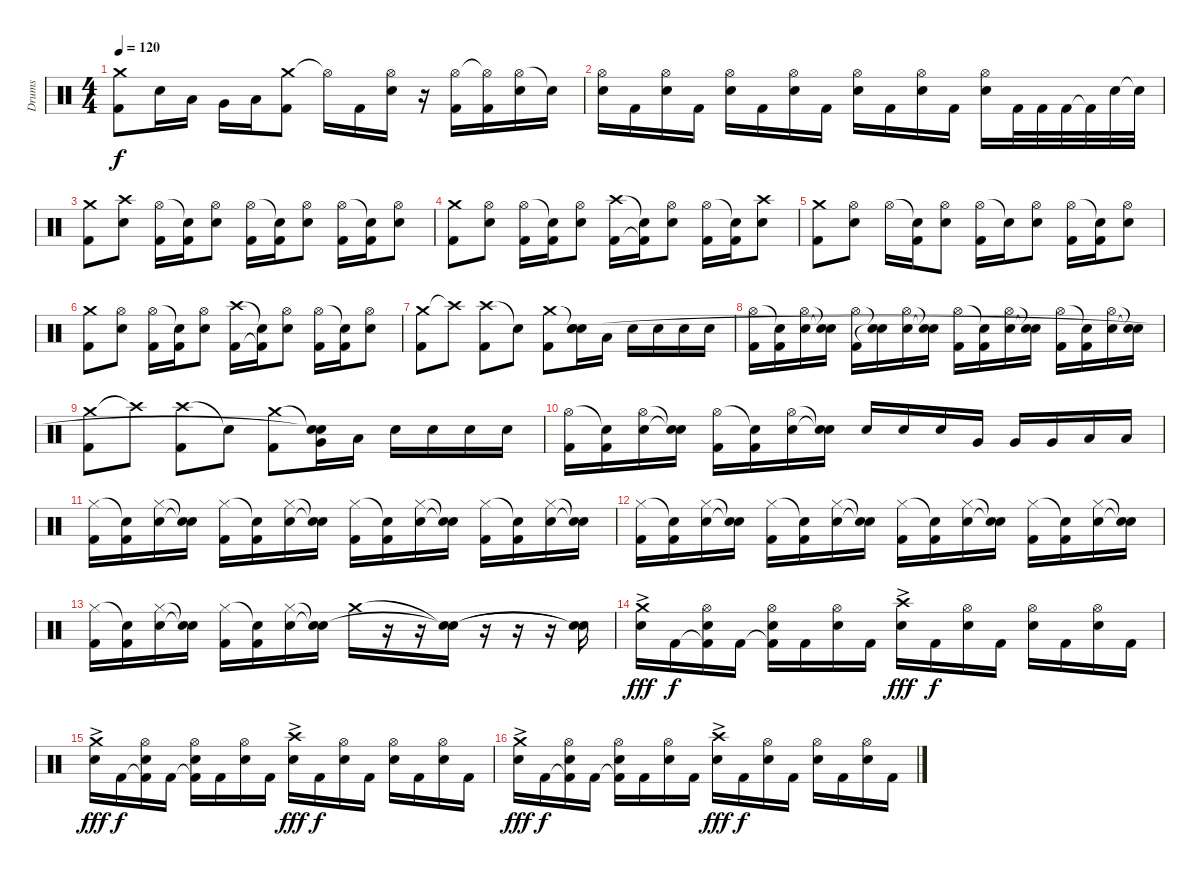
\track ("Drums" "Drums") {instrument percussion}
\staff {score}
\articulation defaults
\ts (4 4)
\tempo 120
\clef neutral
\ks c
("Crash medium (hit)" "Kick (hit) 2").8{dy f} "Electric Snare (hit)".16 "Low Tom (hit)".16 "Very Low Tom (hit)".16 "Low Floor Tom (hit)".16 ("Crash medium (hit)" "Kick (hit) 2").8 "Hi-Hat (open)"{t}.16 "Kick (hit) 2".16 ("Hi-Hat (open)" "Electric Snare (hit)").16 r.16 ("Hi-Hat (open)" "Kick (hit) 2").16 ("Hi-Hat (open)"{t} "Kick (hit) 2").16 ("Hi-Hat (open)" "Electric Snare (hit)").16 "Snare (hit)"{t}.16 |
("Electric Snare (hit)" "Hi-Hat (open)").16 "Kick (hit) 2".16 ("Electric Snare (hit)" "Hi-Hat (open)").16 "Kick (hit) 2".16 ("Electric Snare (hit)" "Hi-Hat (open)").16 "Kick (hit) 2".16 ("Electric Snare (hit)" "Hi-Hat (open)").16 "Kick (hit) 2".16 ("Electric Snare (hit)" "Hi-Hat (open)").16 "Kick (hit) 2".16 ("Electric Snare (hit)" "Hi-Hat (open)").16 "Kick (hit) 2".16 ("Electric Snare (hit)" "Hi-Hat (open)").16 "Kick (hit) 2".32 "Kick (hit) 2".32 "Kick (hit) 2".32 "Kick (hit) 2"{t}.32 "Electric Snare (hit)".32 "Snare (hit)"{t}.32 |
("Crash medium (hit)" "Kick (hit) 2").8 ("Crash high (hit)" "Electric Snare (hit)").8 ("Hi-Hat (open)" "Kick (hit) 2").16 ("Snare (hit)"{t} "Kick (hit) 2").16 ("Hi-Hat (open)" "Electric Snare (hit)").8 ("Hi-Hat (open)" "Kick (hit) 2").16 ("Snare (hit)"{t} "Kick (hit) 2").16 ("Hi-Hat (open)" "Electric Snare (hit)").8 ("Hi-Hat (open)" "Kick (hit) 2").16 ("Snare (hit)"{t} "Kick (hit) 2").16 ("Hi-Hat (open)" "Electric Snare (hit)").8 |
("Crash medium (hit)" "Kick (hit) 2").8 ("Hi-Hat (open)" "Electric Snare (hit)").8 ("Hi-Hat (open)" "Kick (hit) 2").16 ("Snare (hit)"{t} "Kick (hit) 2").16 ("Hi-Hat (open)" "Electric Snare (hit)").8 ("Crash high (hit)" "Kick (hit) 2").16 ("Snare (hit)"{t} "Kick (hit) 2"{t}).16 ("Hi-Hat (open)" "Electric Snare (hit)").8 ("Hi-Hat (open)" "Kick (hit) 2").16 ("Snare (hit)"{t} "Kick (hit) 2").16 ("Crash high (hit)" "Electric Snare (hit)").8 |
("Crash medium (hit)" "Kick (hit) 2").8 ("Hi-Hat (open)" "Electric Snare (hit)").8 "Hi-Hat (open)".16 ("Snare (hit)"{t} "Kick (hit) 2").16 ("Hi-Hat (open)" "Electric Snare (hit)").8 ("Hi-Hat (open)" "Kick (hit) 2").16 "Snare (hit)"{t}.16 ("Hi-Hat (open)" "Electric Snare (hit)").8 ("Hi-Hat (open)" "Kick (hit) 2").16 ("Snare (hit)"{t} "Kick (hit) 2").16 ("Hi-Hat (open)" "Electric Snare (hit)").8 |
("Crash medium (hit)" "Kick (hit) 2").8 ("Hi-Hat (open)" "Electric Snare (hit)").8 ("Hi-Hat (open)" "Kick (hit) 2").16 ("Snare (hit)"{t} "Kick (hit) 2").16 ("Hi-Hat (open)" "Electric Snare (hit)").8 ("Crash high (hit)" "Kick (hit) 2").16 ("Snare (hit)"{t} "Kick (hit) 2"{t}).16 ("Hi-Hat (open)" "Electric Snare (hit)").8 ("Hi-Hat (open)" "Kick (hit) 2").16 ("Snare (hit)"{t} "Kick (hit) 2").16 ("Hi-Hat (open)" "Electric Snare (hit)").8 |
("Crash medium (hit)" "Kick (hit) 2").8 "Crash high (hit)"{t}.8 ("Crash high (hit)" "Kick (hit) 2").8 "Snare (hit)"{t}.8 ("Crash medium (hit)" "Kick (hit) 2").8 ("Snare (hit)"{t} "Electric Snare (hit)" "Snare (hit)").16 "Low Tom (hit)".16 "Electric Snare (hit)".16 "Electric Snare (hit)".16 "Electric Snare (hit)".16 "Electric Snare (hit)".16 |
("Hi-Hat (open)" "Kick (hit) 2").16 ("Snare (hit)"{t} "Kick (hit) 2").16 ("Hi-Hat (open)" "Electric Snare (hit)").16 ("Snare (hit)"{t} "Snare (hit)"{t}).16 ("Hi-Hat (open)" "Kick (hit) 2").16 ("Snare (hit)"{t} "Snare (hit)"{t}).16 ("Hi-Hat (open)" "Electric Snare (hit)").16 ("Snare (hit)"{t} "Snare (hit)"{t}).16 ("Hi-Hat (open)" "Kick (hit) 2").16 ("Snare (hit)"{t} "Kick (hit) 2").16 ("Hi-Hat (open)" "Electric Snare (hit)").16 ("Snare (hit)"{t} "Snare (hit)"{t}).16 ("Hi-Hat (open)" "Kick (hit) 2").16 ("Snare (hit)"{t} "Kick (hit) 2").16 ("Hi-Hat (open)" "Electric Snare (hit)").16 ("Snare (hit)"{t} "Snare (hit)"{t}).16 |
("Crash medium (hit)" "Kick (hit) 2").8 "Crash high (hit)"{t}.8 ("Crash high (hit)" "Kick (hit) 2").8 "Snare (hit)"{t}.8 ("Crash medium (hit)" "Kick (hit) 2").8 ("Snare (hit)"{t} "Very Low Tom (hit)" "Snare (hit)"{t}).16 "Low Tom (hit)".16 "Electric Snare (hit)".16 "Electric Snare (hit)".16 "Electric Snare (hit)".16 "Electric Snare (hit)".16 |
("Hi-Hat (open)" "Kick (hit) 2").16 ("Snare (hit)"{t} "Kick (hit) 2").16 ("Hi-Hat (open)" "Electric Snare (hit)").16 ("Snare (hit)"{t} "Snare (hit)"{t}).16 ("Hi-Hat (open)" "Kick (hit) 2").16 ("Snare (hit)"{t} "Kick (hit) 2").16 ("Hi-Hat (open)" "Electric Snare (hit)").16 ("Snare (hit)"{t} "Snare (hit)"{t}).16 "Electric Snare (hit)".16 "Electric Snare (hit)".16 "Electric Snare (hit)".16 "Very Low Tom (hit)".16 "Very Low Tom (hit)".16 "Very Low Tom (hit)".16 "Low Floor Tom (hit)".16 "Low Floor Tom (hit)".16 |
("Hi-Hat (closed)" "Kick (hit) 2").16 ("Snare (hit)"{t} "Kick (hit) 2").16 ("Hi-Hat (closed)" "Electric Snare (hit)").16 ("Snare (hit)"{t} "Snare (hit)"{t}).16 ("Hi-Hat (closed)" "Kick (hit) 2").16 ("Snare (hit)"{t} "Kick (hit) 2").16 ("Hi-Hat (closed)" "Electric Snare (hit)").16 ("Snare (hit)"{t} "Snare (hit)"{t}).16 ("Hi-Hat (closed)" "Kick (hit) 2").16 ("Snare (hit)"{t} "Kick (hit) 2").16 ("Hi-Hat (closed)" "Electric Snare (hit)").16 ("Snare (hit)"{t} "Snare (hit)"{t}).16 ("Hi-Hat (closed)" "Kick (hit) 2").16 ("Snare (hit)"{t} "Kick (hit) 2").16 ("Hi-Hat (closed)" "Electric Snare (hit)").16 ("Snare (hit)"{t} "Snare (hit)"{t}).16 |
("Hi-Hat (closed)" "Kick (hit) 2").16 ("Snare (hit)"{t} "Kick (hit) 2").16 ("Hi-Hat (closed)" "Electric Snare (hit)").16 ("Snare (hit)"{t} "Snare (hit)"{t}).16 ("Hi-Hat (closed)" "Kick (hit) 2").16 ("Snare (hit)"{t} "Kick (hit) 2").16 ("Hi-Hat (closed)" "Electric Snare (hit)").16 ("Snare (hit)"{t} "Snare (hit)"{t}).16 ("Hi-Hat (closed)" "Kick (hit) 2").16 ("Snare (hit)"{t} "Kick (hit) 2").16 ("Hi-Hat (closed)" "Electric Snare (hit)").16 ("Snare (hit)"{t} "Snare (hit)"{t}).16 ("Hi-Hat (closed)" "Kick (hit) 2").16 ("Snare (hit)"{t} "Kick (hit) 2").16 ("Hi-Hat (closed)" "Electric Snare (hit)").16 ("Snare (hit)"{t} "Snare (hit)"{t}).16 |
("Hi-Hat (closed)" "Kick (hit) 2").16 ("Snare (hit)"{t} "Kick (hit) 2").16 ("Hi-Hat (closed)" "Electric Snare (hit)").16 ("Snare (hit)"{t} "Snare (hit)"{t}).16 ("Hi-Hat (closed)" "Kick (hit) 2").16 ("Snare (hit)"{t} "Kick (hit) 2").16 ("Hi-Hat (closed)" "Electric Snare (hit)").16 ("Snare (hit)"{t} "Snare (hit)"{t}).16 "Crash medium (hit)".16 r.16 r.16 ("Snare (hit)"{t} "Snare (hit)"{t}).16 r.16 r.16 r.16 ("Snare (hit)"{t} "Snare (hit)"{t}).16 |
("Electric Snare (hit)"{ac} "Crash medium (hit)").16{dy fff} "Kick (hit) 2".16{dy f} ("Kick (hit) 2"{t} "Hi-Hat (open)" "Electric Snare (hit)").16 "Kick (hit) 2".16 ("Kick (hit) 2"{t} "Hi-Hat (open)" "Electric Snare (hit)").16 "Kick (hit) 2".16 ("Hi-Hat (open)" "Electric Snare (hit)").16 "Kick (hit) 2".16 ("Electric Snare (hit)"{ac} "Crash high (hit)").16{dy fff} "Kick (hit) 2".16{dy f} ("Hi-Hat (open)" "Electric Snare (hit)").16 "Kick (hit) 2".16 ("Hi-Hat (open)" "Electric Snare (hit)").16 "Kick (hit) 2".16 ("Hi-Hat (open)" "Electric Snare (hit)").16 "Kick (hit) 2".16 |
("Electric Snare (hit)"{ac} "Crash medium (hit)").16{dy fff} "Kick (hit) 2".16{dy f} ("Kick (hit) 2"{t} "Hi-Hat (open)" "Electric Snare (hit)").16 "Kick (hit) 2".16 ("Kick (hit) 2"{t} "Hi-Hat (open)" "Electric Snare (hit)").16 "Kick (hit) 2".16 ("Hi-Hat (open)" "Electric Snare (hit)").16 "Kick (hit) 2".16 ("Electric Snare (hit)"{ac} "Crash high (hit)").16{dy fff} "Kick (hit) 2".16{dy f} ("Hi-Hat (open)" "Electric Snare (hit)").16 "Kick (hit) 2".16 ("Hi-Hat (open)" "Electric Snare (hit)").16 "Kick (hit) 2".16 ("Hi-Hat (open)" "Electric Snare (hit)").16 "Kick (hit) 2".16 |
("Electric Snare (hit)"{ac} "Crash medium (hit)").16{dy fff} "Kick (hit) 2".16{dy f} ("Kick (hit) 2"{t} "Hi-Hat (open)" "Electric Snare (hit)").16 "Kick (hit) 2".16 ("Kick (hit) 2"{t} "Hi-Hat (open)" "Electric Snare (hit)").16 "Kick (hit) 2".16 ("Hi-Hat (open)" "Electric Snare (hit)").16 "Kick (hit) 2".16 ("Electric Snare (hit)"{ac} "Crash high (hit)").16{dy fff} "Kick (hit) 2".16{dy f} ("Hi-Hat (open)" "Electric Snare (hit)").16 "Kick (hit) 2".16 ("Hi-Hat (open)" "Electric Snare (hit)").16 "Kick (hit) 2".16 ("Hi-Hat (open)" "Electric Snare (hit)").16 "Kick (hit) 2".16
